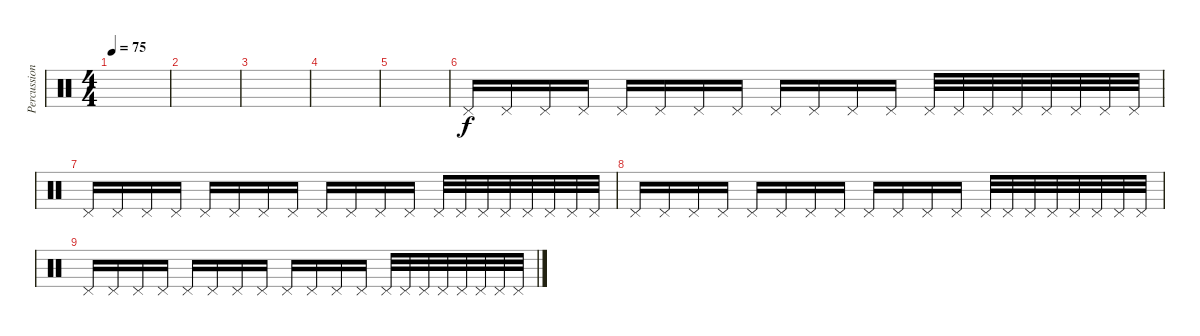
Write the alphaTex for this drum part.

\track ("Percussion" "Percussion") {instrument percussion}
\staff {score}
\articulation defaults
\ts (4 4)
\tempo 75
\clef neutral
\ks c
|
|
|
|
|
"Pedal Hi-Hat (hit)".16 "Pedal Hi-Hat (hit)".16 "Pedal Hi-Hat (hit)".16 "Pedal Hi-Hat (hit)".16 "Pedal Hi-Hat (hit)".16 "Pedal Hi-Hat (hit)".16 "Pedal Hi-Hat (hit)".16 "Pedal Hi-Hat (hit)".16 "Pedal Hi-Hat (hit)".16 "Pedal Hi-Hat (hit)".16 "Pedal Hi-Hat (hit)".16 "Pedal Hi-Hat (hit)".16 "Pedal Hi-Hat (hit)".32 "Pedal Hi-Hat (hit)".32 "Pedal Hi-Hat (hit)".32 "Pedal Hi-Hat (hit)".32 "Pedal Hi-Hat (hit)".32 "Pedal Hi-Hat (hit)".32 "Pedal Hi-Hat (hit)".32 "Pedal Hi-Hat (hit)".32 |
"Pedal Hi-Hat (hit)".16 "Pedal Hi-Hat (hit)".16 "Pedal Hi-Hat (hit)".16 "Pedal Hi-Hat (hit)".16 "Pedal Hi-Hat (hit)".16 "Pedal Hi-Hat (hit)".16 "Pedal Hi-Hat (hit)".16 "Pedal Hi-Hat (hit)".16 "Pedal Hi-Hat (hit)".16 "Pedal Hi-Hat (hit)".16 "Pedal Hi-Hat (hit)".16 "Pedal Hi-Hat (hit)".16 "Pedal Hi-Hat (hit)".32 "Pedal Hi-Hat (hit)".32 "Pedal Hi-Hat (hit)".32 "Pedal Hi-Hat (hit)".32 "Pedal Hi-Hat (hit)".32 "Pedal Hi-Hat (hit)".32 "Pedal Hi-Hat (hit)".32 "Pedal Hi-Hat (hit)".32 |
"Pedal Hi-Hat (hit)".16 "Pedal Hi-Hat (hit)".16 "Pedal Hi-Hat (hit)".16 "Pedal Hi-Hat (hit)".16 "Pedal Hi-Hat (hit)".16 "Pedal Hi-Hat (hit)".16 "Pedal Hi-Hat (hit)".16 "Pedal Hi-Hat (hit)".16 "Pedal Hi-Hat (hit)".16 "Pedal Hi-Hat (hit)".16 "Pedal Hi-Hat (hit)".16 "Pedal Hi-Hat (hit)".16 "Pedal Hi-Hat (hit)".32 "Pedal Hi-Hat (hit)".32 "Pedal Hi-Hat (hit)".32 "Pedal Hi-Hat (hit)".32 "Pedal Hi-Hat (hit)".32 "Pedal Hi-Hat (hit)".32 "Pedal Hi-Hat (hit)".32 "Pedal Hi-Hat (hit)".32 |
"Pedal Hi-Hat (hit)".16 "Pedal Hi-Hat (hit)".16 "Pedal Hi-Hat (hit)".16 "Pedal Hi-Hat (hit)".16 "Pedal Hi-Hat (hit)".16 "Pedal Hi-Hat (hit)".16 "Pedal Hi-Hat (hit)".16 "Pedal Hi-Hat (hit)".16 "Pedal Hi-Hat (hit)".16 "Pedal Hi-Hat (hit)".16 "Pedal Hi-Hat (hit)".16 "Pedal Hi-Hat (hit)".16 "Pedal Hi-Hat (hit)".32 "Pedal Hi-Hat (hit)".32 "Pedal Hi-Hat (hit)".32 "Pedal Hi-Hat (hit)".32 "Pedal Hi-Hat (hit)".32 "Pedal Hi-Hat (hit)".32 "Pedal Hi-Hat (hit)".32 "Pedal Hi-Hat (hit)".32
